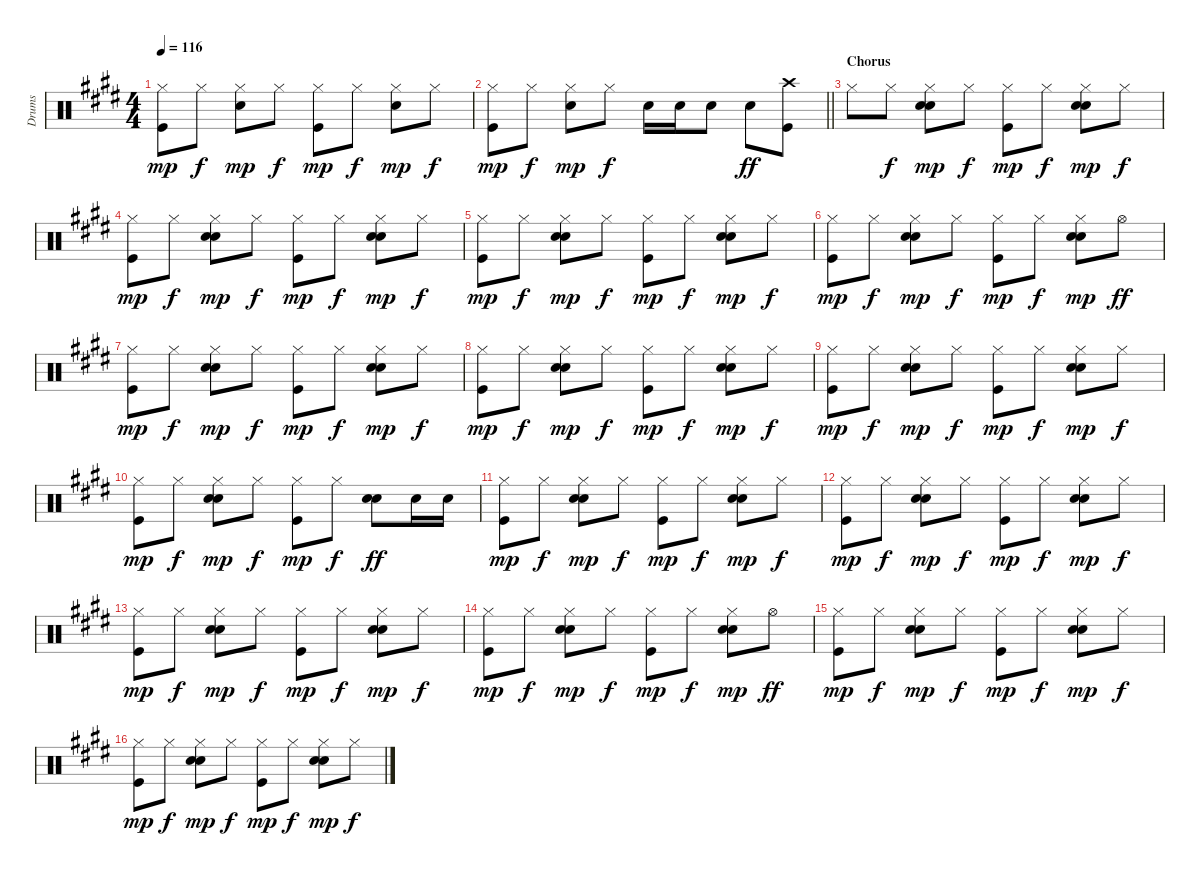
\track ("Drums" "Drums") {instrument percussion}
\staff {score}
\articulation defaults
\ts (4 4)
\tempo 116
\clef neutral
\ks e
("Kick (hit)" "Hi-Hat (closed)").8{dy mp} "Hi-Hat (closed)".8{dy f} ("Electric Snare (hit)" "Hi-Hat (closed)").8{dy mp} "Hi-Hat (closed)".8{dy f} ("Kick (hit)" "Hi-Hat (closed)").8{dy mp} "Hi-Hat (closed)".8{dy f} ("Electric Snare (hit)" "Hi-Hat (closed)").8{dy mp} "Hi-Hat (closed)".8{dy f} |
\barLineRight lightlight
("Kick (hit)" "Hi-Hat (closed)").8{dy mp} "Hi-Hat (closed)".8{dy f} ("Electric Snare (hit)" "Hi-Hat (closed)").8{dy mp} "Hi-Hat (closed)".8{dy f} "Electric Snare (hit)".16 "Electric Snare (hit)".16 "Electric Snare (hit)".8 "Electric Snare (hit)".8{dy ff} ("Kick (hit)" "Crash high (hit)").8 |
\section ("" "Chorus")
"Hi-Hat (closed)".8 "Hi-Hat (closed)".8{dy f} ("Hand Clap (hit)" "Electric Snare (hit)" "Hi-Hat (closed)").8{dy mp} "Hi-Hat (closed)".8{dy f} ("Kick (hit)" "Hi-Hat (closed)").8{dy mp} "Hi-Hat (closed)".8{dy f} ("Hand Clap (hit)" "Electric Snare (hit)" "Hi-Hat (closed)").8{dy mp} "Hi-Hat (closed)".8{dy f} |
("Kick (hit)" "Hi-Hat (closed)").8{dy mp} "Hi-Hat (closed)".8{dy f} ("Hand Clap (hit)" "Electric Snare (hit)" "Hi-Hat (closed)").8{dy mp} "Hi-Hat (closed)".8{dy f} ("Kick (hit)" "Hi-Hat (closed)").8{dy mp} "Hi-Hat (closed)".8{dy f} ("Hand Clap (hit)" "Electric Snare (hit)" "Hi-Hat (closed)").8{dy mp} "Hi-Hat (closed)".8{dy f} |
("Kick (hit)" "Hi-Hat (closed)").8{dy mp} "Hi-Hat (closed)".8{dy f} ("Hand Clap (hit)" "Electric Snare (hit)" "Hi-Hat (closed)").8{dy mp} "Hi-Hat (closed)".8{dy f} ("Kick (hit)" "Hi-Hat (closed)").8{dy mp} "Hi-Hat (closed)".8{dy f} ("Hand Clap (hit)" "Electric Snare (hit)" "Hi-Hat (closed)").8{dy mp} "Hi-Hat (closed)".8{dy f} |
("Kick (hit)" "Hi-Hat (closed)").8{dy mp} "Hi-Hat (closed)".8{dy f} ("Hand Clap (hit)" "Electric Snare (hit)" "Hi-Hat (closed)").8{dy mp} "Hi-Hat (closed)".8{dy f} ("Kick (hit)" "Hi-Hat (closed)").8{dy mp} "Hi-Hat (closed)".8{dy f} ("Hand Clap (hit)" "Electric Snare (hit)" "Hi-Hat (closed)").8{dy mp} "Hi-Hat (open)".8{dy ff} |
("Kick (hit)" "Hi-Hat (closed)").8{dy mp} "Hi-Hat (closed)".8{dy f} ("Hand Clap (hit)" "Electric Snare (hit)" "Hi-Hat (closed)").8{dy mp} "Hi-Hat (closed)".8{dy f} ("Kick (hit)" "Hi-Hat (closed)").8{dy mp} "Hi-Hat (closed)".8{dy f} ("Hand Clap (hit)" "Electric Snare (hit)" "Hi-Hat (closed)").8{dy mp} "Hi-Hat (closed)".8{dy f} |
("Kick (hit)" "Hi-Hat (closed)").8{dy mp} "Hi-Hat (closed)".8{dy f} ("Hand Clap (hit)" "Electric Snare (hit)" "Hi-Hat (closed)").8{dy mp} "Hi-Hat (closed)".8{dy f} ("Kick (hit)" "Hi-Hat (closed)").8{dy mp} "Hi-Hat (closed)".8{dy f} ("Hand Clap (hit)" "Electric Snare (hit)" "Hi-Hat (closed)").8{dy mp} "Hi-Hat (closed)".8{dy f} |
("Kick (hit)" "Hi-Hat (closed)").8{dy mp} "Hi-Hat (closed)".8{dy f} ("Hand Clap (hit)" "Electric Snare (hit)" "Hi-Hat (closed)").8{dy mp} "Hi-Hat (closed)".8{dy f} ("Kick (hit)" "Hi-Hat (closed)").8{dy mp} "Hi-Hat (closed)".8{dy f} ("Hand Clap (hit)" "Electric Snare (hit)" "Hi-Hat (closed)").8{dy mp} "Hi-Hat (closed)".8{dy f} |
("Kick (hit)" "Hi-Hat (closed)").8{dy mp} "Hi-Hat (closed)".8{dy f} ("Hand Clap (hit)" "Electric Snare (hit)" "Hi-Hat (closed)").8{dy mp} "Hi-Hat (closed)".8{dy f} ("Kick (hit)" "Hi-Hat (closed)").8{dy mp} "Hi-Hat (closed)".8{dy f} ("Hand Clap (hit)" "Electric Snare (hit)").8{dy ff} "Electric Snare (hit)".16 "Electric Snare (hit)".16 |
("Kick (hit)" "Hi-Hat (closed)").8{dy mp} "Hi-Hat (closed)".8{dy f} ("Hand Clap (hit)" "Electric Snare (hit)" "Hi-Hat (closed)").8{dy mp} "Hi-Hat (closed)".8{dy f} ("Kick (hit)" "Hi-Hat (closed)").8{dy mp} "Hi-Hat (closed)".8{dy f} ("Hand Clap (hit)" "Electric Snare (hit)" "Hi-Hat (closed)").8{dy mp} "Hi-Hat (closed)".8{dy f} |
("Kick (hit)" "Hi-Hat (closed)").8{dy mp} "Hi-Hat (closed)".8{dy f} ("Hand Clap (hit)" "Electric Snare (hit)" "Hi-Hat (closed)").8{dy mp} "Hi-Hat (closed)".8{dy f} ("Kick (hit)" "Hi-Hat (closed)").8{dy mp} "Hi-Hat (closed)".8{dy f} ("Hand Clap (hit)" "Electric Snare (hit)" "Hi-Hat (closed)").8{dy mp} "Hi-Hat (closed)".8{dy f} |
("Kick (hit)" "Hi-Hat (closed)").8{dy mp} "Hi-Hat (closed)".8{dy f} ("Hand Clap (hit)" "Electric Snare (hit)" "Hi-Hat (closed)").8{dy mp} "Hi-Hat (closed)".8{dy f} ("Kick (hit)" "Hi-Hat (closed)").8{dy mp} "Hi-Hat (closed)".8{dy f} ("Hand Clap (hit)" "Electric Snare (hit)" "Hi-Hat (closed)").8{dy mp} "Hi-Hat (closed)".8{dy f} |
("Kick (hit)" "Hi-Hat (closed)").8{dy mp} "Hi-Hat (closed)".8{dy f} ("Hand Clap (hit)" "Electric Snare (hit)" "Hi-Hat (closed)").8{dy mp} "Hi-Hat (closed)".8{dy f} ("Kick (hit)" "Hi-Hat (closed)").8{dy mp} "Hi-Hat (closed)".8{dy f} ("Hand Clap (hit)" "Electric Snare (hit)" "Hi-Hat (closed)").8{dy mp} "Hi-Hat (open)".8{dy ff} |
("Kick (hit)" "Hi-Hat (closed)").8{dy mp} "Hi-Hat (closed)".8{dy f} ("Hand Clap (hit)" "Electric Snare (hit)" "Hi-Hat (closed)").8{dy mp} "Hi-Hat (closed)".8{dy f} ("Kick (hit)" "Hi-Hat (closed)").8{dy mp} "Hi-Hat (closed)".8{dy f} ("Hand Clap (hit)" "Electric Snare (hit)" "Hi-Hat (closed)").8{dy mp} "Hi-Hat (closed)".8{dy f} |
("Kick (hit)" "Hi-Hat (closed)").8{dy mp} "Hi-Hat (closed)".8{dy f} ("Hand Clap (hit)" "Electric Snare (hit)" "Hi-Hat (closed)").8{dy mp} "Hi-Hat (closed)".8{dy f} ("Kick (hit)" "Hi-Hat (closed)").8{dy mp} "Hi-Hat (closed)".8{dy f} ("Hand Clap (hit)" "Electric Snare (hit)" "Hi-Hat (closed)").8{dy mp} "Hi-Hat (closed)".8{dy f}
